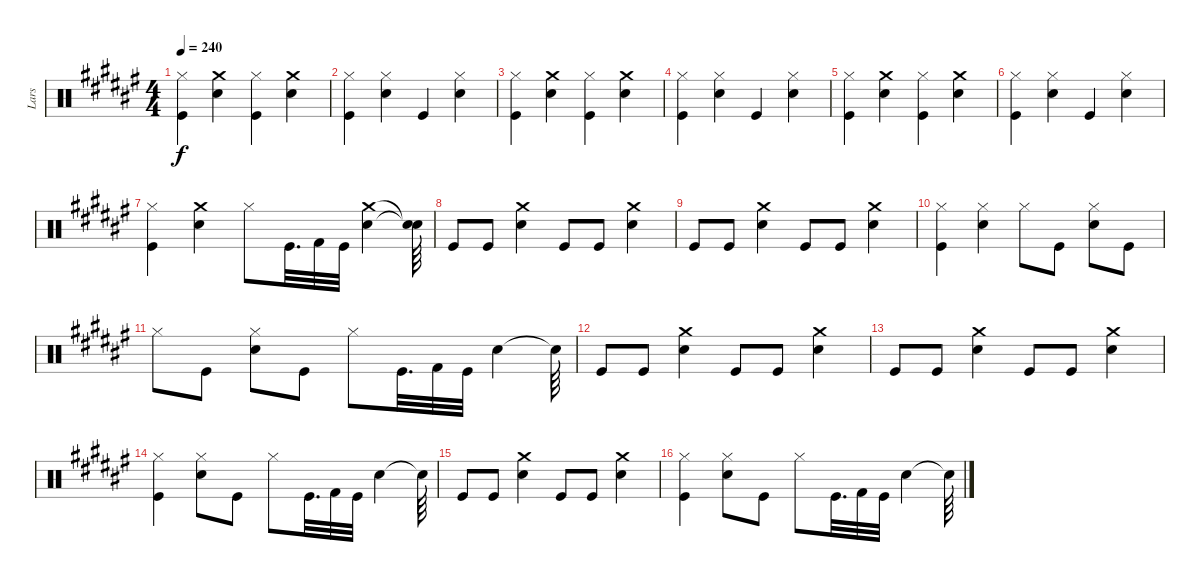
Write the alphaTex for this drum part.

\track ("Lars" "Lars") {instrument percussion}
\staff {score}
\articulation defaults
\ts (4 4)
\tempo 240
\clef neutral
\ks f#
("Hi-Hat (closed)" "Kick (hit)").4{dy f} ("Crash medium (hit)" "Snare (hit) 2").4 ("Hi-Hat (closed)" "Kick (hit)").4 ("Crash medium (hit)" "Snare (hit) 2").4 |
("Hi-Hat (closed)" "Kick (hit)").4 ("Hi-Hat (closed)" "Snare (hit) 2").4 "Kick (hit)".4 ("Snare (hit) 2" "Hi-Hat (closed)").4 |
("Hi-Hat (closed)" "Kick (hit)").4 ("Crash medium (hit)" "Snare (hit) 2").4 ("Hi-Hat (closed)" "Kick (hit)").4 ("Crash medium (hit)" "Snare (hit) 2").4 |
("Hi-Hat (closed)" "Kick (hit)").4 ("Hi-Hat (closed)" "Snare (hit) 2").4 "Kick (hit)".4 ("Snare (hit) 2" "Hi-Hat (closed)").4 |
("Hi-Hat (closed)" "Kick (hit)").4 ("Crash medium (hit)" "Snare (hit) 2").4 ("Hi-Hat (closed)" "Kick (hit)").4 ("Crash medium (hit)" "Snare (hit) 2").4 |
("Hi-Hat (closed)" "Kick (hit)").4 ("Hi-Hat (closed)" "Snare (hit) 2").4 "Kick (hit)".4 ("Snare (hit) 2" "Hi-Hat (closed)").4 |
("Hi-Hat (closed)" "Kick (hit)").4 ("Crash medium (hit)" "Snare (hit) 2").4 "Hi-Hat (closed)".8 "Kick (hit)".32{d} "Kick (hit) 2".32 "Kick (hit)".32 ("Crash medium (hit)" "Snare (hit) 2").4 ("Snare (hit)"{t} "Snare (hit)"{t}).64 |
"Kick (hit)".8 "Kick (hit)".8 ("Snare (hit) 2" "Crash medium (hit)").4 "Kick (hit)".8 "Kick (hit)".8 ("Snare (hit) 2" "Crash medium (hit)").4 |
"Kick (hit)".8 "Kick (hit)".8 ("Snare (hit) 2" "Crash medium (hit)").4 "Kick (hit)".8 "Kick (hit)".8 ("Snare (hit) 2" "Crash medium (hit)").4 |
("Kick (hit)" "Hi-Hat (closed)").4 ("Hi-Hat (closed)" "Snare (hit) 2").4 "Hi-Hat (closed)".8 "Kick (hit)".8 ("Snare (hit) 2" "Hi-Hat (closed)").8 "Kick (hit)".8 |
"Hi-Hat (closed)".8 "Kick (hit)".8 ("Snare (hit) 2" "Hi-Hat (closed)").8 "Kick (hit)".8 "Hi-Hat (closed)".8 "Kick (hit)".32{d} "Kick (hit) 2".32 "Kick (hit)".32 "Snare (hit) 2".4 "Snare (hit)"{t}.64 |
"Kick (hit)".8 "Kick (hit)".8 ("Snare (hit) 2" "Crash medium (hit)").4 "Kick (hit)".8 "Kick (hit)".8 ("Snare (hit) 2" "Crash medium (hit)").4 |
"Kick (hit)".8 "Kick (hit)".8 ("Snare (hit) 2" "Crash medium (hit)").4 "Kick (hit)".8 "Kick (hit)".8 ("Snare (hit) 2" "Crash medium (hit)").4 |
("Kick (hit)" "Hi-Hat (closed)").4 ("Snare (hit) 2" "Hi-Hat (closed)").8 "Kick (hit)".8 "Hi-Hat (closed)".8 "Kick (hit)".32{d} "Kick (hit) 2".32 "Kick (hit)".32 "Snare (hit) 2".4 "Snare (hit)"{t}.64 |
"Kick (hit)".8 "Kick (hit)".8 ("Snare (hit) 2" "Crash medium (hit)").4 "Kick (hit)".8 "Kick (hit)".8 ("Snare (hit) 2" "Crash medium (hit)").4 |
("Kick (hit)" "Hi-Hat (closed)").4 ("Snare (hit) 2" "Hi-Hat (closed)").8 "Kick (hit)".8 "Hi-Hat (closed)".8 "Kick (hit)".32{d} "Kick (hit) 2".32 "Kick (hit)".32 "Snare (hit) 2".4 "Snare (hit)"{t}.64
